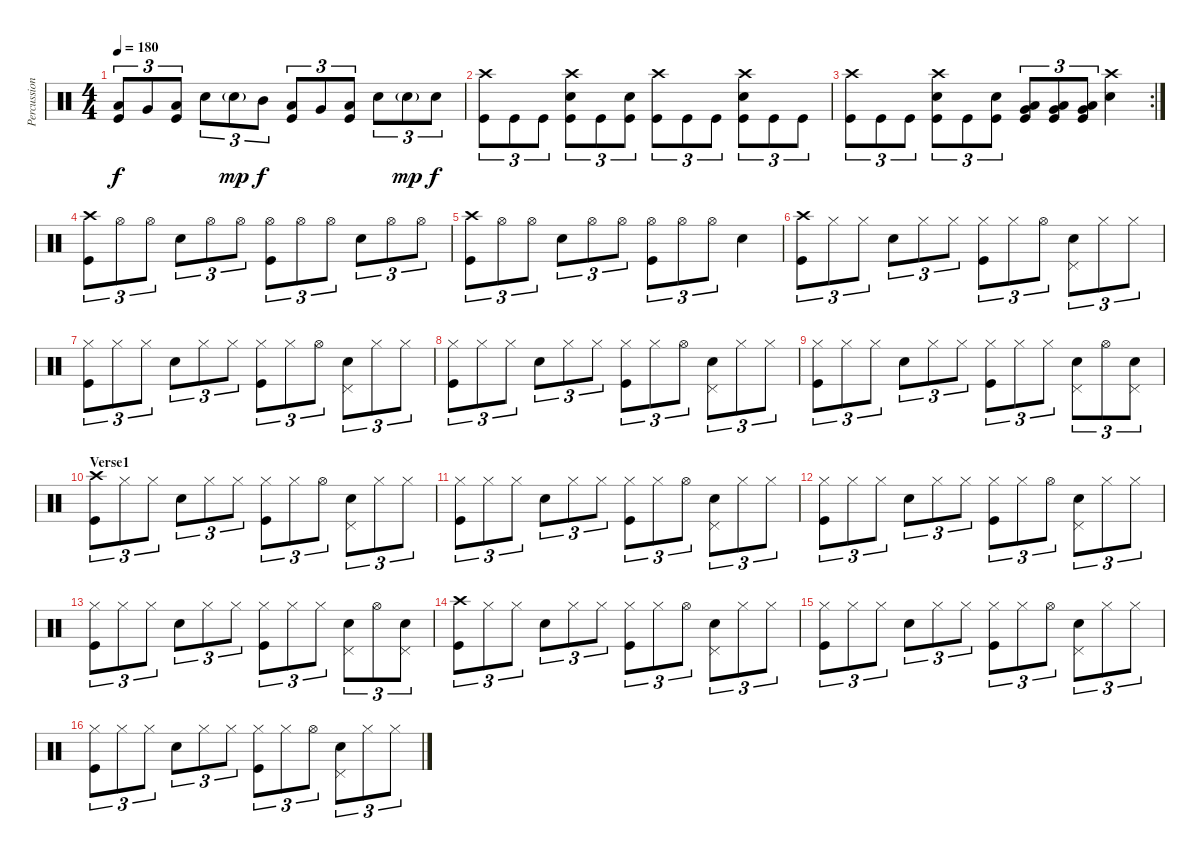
\track ("Percussions" "Percussion") {instrument percussion}
\staff {score}
\articulation defaults
\ts (4 4)
\tempo 180
\clef neutral
\ks c
("Low Tom (hit)" "Kick (hit)").8{tu (3 2) dy f} "Very Low Tom (hit)".8{tu (3 2)} ("Low Floor Tom (hit)" "Kick (hit)").8{tu (3 2)} "Electric Snare (hit)".8{tu (3 2)} "Electric Snare (hit)"{g}.8{tu (3 2) dy mp} "Mid Tom (hit)".8{tu (3 2) dy f} ("Low Tom (hit)" "Kick (hit)").8{tu (3 2)} "Very Low Tom (hit)".8{tu (3 2)} ("Low Floor Tom (hit)" "Kick (hit)").8{tu (3 2)} "Electric Snare (hit)".8{tu (3 2)} "Electric Snare (hit)"{g}.8{tu (3 2) dy mp} "Electric Snare (hit)".8{tu (3 2) dy f} |
("Crash high (hit)" "Kick (hit)").8{tu (3 2)} "Kick (hit)".8{tu (3 2)} "Kick (hit)".8{tu (3 2)} ("Crash high (hit)" "Electric Snare (hit)" "Kick (hit)").8{tu (3 2)} "Kick (hit)".8{tu (3 2)} ("Electric Snare (hit)" "Kick (hit)").8{tu (3 2)} ("Crash high (hit)" "Kick (hit)").8{tu (3 2)} "Kick (hit)".8{tu (3 2)} "Kick (hit)".8{tu (3 2)} ("Crash high (hit)" "Electric Snare (hit)" "Kick (hit)").8{tu (3 2)} "Kick (hit)".8{tu (3 2)} "Kick (hit)".8{tu (3 2)} |
\rc 2
("Crash high (hit)" "Kick (hit)").8{tu (3 2)} "Kick (hit)".8{tu (3 2)} "Kick (hit)".8{tu (3 2)} ("Crash high (hit)" "Electric Snare (hit)" "Kick (hit)").8{tu (3 2)} "Kick (hit)".8{tu (3 2)} ("Electric Snare (hit)" "Kick (hit)").8{tu (3 2)} ("Very Low Tom (hit)" "Low Floor Tom (hit)" "Kick (hit)").8{tu (3 2)} ("Very Low Tom (hit)" "Low Floor Tom (hit)" "Kick (hit)").8{tu (3 2)} ("Very Low Tom (hit)" "Low Floor Tom (hit)" "Kick (hit)").8{tu (3 2)} ("Crash high (hit)" "Electric Snare (hit)").4 |
("Crash high (hit)" "Kick (hit)").8{tu (3 2)} "Hi-Hat (open)".8{tu (3 2)} "Hi-Hat (open)".8{tu (3 2)} "Electric Snare (hit)".8{tu (3 2)} "Hi-Hat (open)".8{tu (3 2)} "Hi-Hat (open)".8{tu (3 2)} ("Hi-Hat (open)" "Kick (hit)").8{tu (3 2)} "Hi-Hat (open)".8{tu (3 2)} "Hi-Hat (open)".8{tu (3 2)} "Electric Snare (hit)".8{tu (3 2)} "Hi-Hat (open)".8{tu (3 2)} "Hi-Hat (open)".8{tu (3 2)} |
("Crash high (hit)" "Kick (hit)").8{tu (3 2)} "Hi-Hat (open)".8{tu (3 2)} "Hi-Hat (open)".8{tu (3 2)} "Electric Snare (hit)".8{tu (3 2)} "Hi-Hat (open)".8{tu (3 2)} "Hi-Hat (open)".8{tu (3 2)} ("Hi-Hat (open)" "Kick (hit)").8{tu (3 2)} "Hi-Hat (open)".8{tu (3 2)} "Hi-Hat (open)".8{tu (3 2)} "Electric Snare (hit)".4 |
("Crash high (hit)" "Kick (hit)").8{tu (3 2)} "Hi-Hat (closed)".8{tu (3 2)} "Hi-Hat (closed)".8{tu (3 2)} "Electric Snare (hit)".8{tu (3 2)} "Hi-Hat (closed)".8{tu (3 2)} "Hi-Hat (closed)".8{tu (3 2)} ("Hi-Hat (closed)" "Kick (hit)").8{tu (3 2)} "Hi-Hat (closed)".8{tu (3 2)} "Hi-Hat (open)".8{tu (3 2)} ("Pedal Hi-Hat (hit)" "Electric Snare (hit)").8{tu (3 2)} "Hi-Hat (closed)".8{tu (3 2)} "Hi-Hat (closed)".8{tu (3 2)} |
("Hi-Hat (closed)" "Kick (hit)").8{tu (3 2)} "Hi-Hat (closed)".8{tu (3 2)} "Hi-Hat (closed)".8{tu (3 2)} "Electric Snare (hit)".8{tu (3 2)} "Hi-Hat (closed)".8{tu (3 2)} "Hi-Hat (closed)".8{tu (3 2)} ("Hi-Hat (closed)" "Kick (hit)").8{tu (3 2)} "Hi-Hat (closed)".8{tu (3 2)} "Hi-Hat (open)".8{tu (3 2)} ("Pedal Hi-Hat (hit)" "Electric Snare (hit)").8{tu (3 2)} "Hi-Hat (closed)".8{tu (3 2)} "Hi-Hat (closed)".8{tu (3 2)} |
("Hi-Hat (closed)" "Kick (hit)").8{tu (3 2)} "Hi-Hat (closed)".8{tu (3 2)} "Hi-Hat (closed)".8{tu (3 2)} "Electric Snare (hit)".8{tu (3 2)} "Hi-Hat (closed)".8{tu (3 2)} "Hi-Hat (closed)".8{tu (3 2)} ("Hi-Hat (closed)" "Kick (hit)").8{tu (3 2)} "Hi-Hat (closed)".8{tu (3 2)} "Hi-Hat (open)".8{tu (3 2)} ("Pedal Hi-Hat (hit)" "Electric Snare (hit)").8{tu (3 2)} "Hi-Hat (closed)".8{tu (3 2)} "Hi-Hat (closed)".8{tu (3 2)} |
("Hi-Hat (closed)" "Kick (hit)").8{tu (3 2)} "Hi-Hat (closed)".8{tu (3 2)} "Hi-Hat (closed)".8{tu (3 2)} "Electric Snare (hit)".8{tu (3 2)} "Hi-Hat (closed)".8{tu (3 2)} "Hi-Hat (closed)".8{tu (3 2)} ("Hi-Hat (closed)" "Kick (hit)").8{tu (3 2)} "Hi-Hat (closed)".8{tu (3 2)} "Hi-Hat (closed)".8{tu (3 2)} ("Pedal Hi-Hat (hit)" "Electric Snare (hit)").8{tu (3 2)} "Hi-Hat (open)".8{tu (3 2)} ("Pedal Hi-Hat (hit)" "Electric Snare (hit)").8{tu (3 2)} |
\section ("" "Verse1")
("Crash high (hit)" "Kick (hit)").8{tu (3 2)} "Hi-Hat (closed)".8{tu (3 2)} "Hi-Hat (closed)".8{tu (3 2)} "Electric Snare (hit)".8{tu (3 2)} "Hi-Hat (closed)".8{tu (3 2)} "Hi-Hat (closed)".8{tu (3 2)} ("Hi-Hat (closed)" "Kick (hit)").8{tu (3 2)} "Hi-Hat (closed)".8{tu (3 2)} "Hi-Hat (open)".8{tu (3 2)} ("Pedal Hi-Hat (hit)" "Electric Snare (hit)").8{tu (3 2)} "Hi-Hat (closed)".8{tu (3 2)} "Hi-Hat (closed)".8{tu (3 2)} |
("Hi-Hat (closed)" "Kick (hit)").8{tu (3 2)} "Hi-Hat (closed)".8{tu (3 2)} "Hi-Hat (closed)".8{tu (3 2)} "Electric Snare (hit)".8{tu (3 2)} "Hi-Hat (closed)".8{tu (3 2)} "Hi-Hat (closed)".8{tu (3 2)} ("Hi-Hat (closed)" "Kick (hit)").8{tu (3 2)} "Hi-Hat (closed)".8{tu (3 2)} "Hi-Hat (open)".8{tu (3 2)} ("Pedal Hi-Hat (hit)" "Electric Snare (hit)").8{tu (3 2)} "Hi-Hat (closed)".8{tu (3 2)} "Hi-Hat (closed)".8{tu (3 2)} |
("Hi-Hat (closed)" "Kick (hit)").8{tu (3 2)} "Hi-Hat (closed)".8{tu (3 2)} "Hi-Hat (closed)".8{tu (3 2)} "Electric Snare (hit)".8{tu (3 2)} "Hi-Hat (closed)".8{tu (3 2)} "Hi-Hat (closed)".8{tu (3 2)} ("Hi-Hat (closed)" "Kick (hit)").8{tu (3 2)} "Hi-Hat (closed)".8{tu (3 2)} "Hi-Hat (open)".8{tu (3 2)} ("Pedal Hi-Hat (hit)" "Electric Snare (hit)").8{tu (3 2)} "Hi-Hat (closed)".8{tu (3 2)} "Hi-Hat (closed)".8{tu (3 2)} |
("Hi-Hat (closed)" "Kick (hit)").8{tu (3 2)} "Hi-Hat (closed)".8{tu (3 2)} "Hi-Hat (closed)".8{tu (3 2)} "Electric Snare (hit)".8{tu (3 2)} "Hi-Hat (closed)".8{tu (3 2)} "Hi-Hat (closed)".8{tu (3 2)} ("Hi-Hat (closed)" "Kick (hit)").8{tu (3 2)} "Hi-Hat (closed)".8{tu (3 2)} "Hi-Hat (closed)".8{tu (3 2)} ("Pedal Hi-Hat (hit)" "Electric Snare (hit)").8{tu (3 2)} "Hi-Hat (open)".8{tu (3 2)} ("Pedal Hi-Hat (hit)" "Electric Snare (hit)").8{tu (3 2)} |
("Crash high (hit)" "Kick (hit)").8{tu (3 2)} "Hi-Hat (closed)".8{tu (3 2)} "Hi-Hat (closed)".8{tu (3 2)} "Electric Snare (hit)".8{tu (3 2)} "Hi-Hat (closed)".8{tu (3 2)} "Hi-Hat (closed)".8{tu (3 2)} ("Hi-Hat (closed)" "Kick (hit)").8{tu (3 2)} "Hi-Hat (closed)".8{tu (3 2)} "Hi-Hat (open)".8{tu (3 2)} ("Pedal Hi-Hat (hit)" "Electric Snare (hit)").8{tu (3 2)} "Hi-Hat (closed)".8{tu (3 2)} "Hi-Hat (closed)".8{tu (3 2)} |
("Hi-Hat (closed)" "Kick (hit)").8{tu (3 2)} "Hi-Hat (closed)".8{tu (3 2)} "Hi-Hat (closed)".8{tu (3 2)} "Electric Snare (hit)".8{tu (3 2)} "Hi-Hat (closed)".8{tu (3 2)} "Hi-Hat (closed)".8{tu (3 2)} ("Hi-Hat (closed)" "Kick (hit)").8{tu (3 2)} "Hi-Hat (closed)".8{tu (3 2)} "Hi-Hat (open)".8{tu (3 2)} ("Pedal Hi-Hat (hit)" "Electric Snare (hit)").8{tu (3 2)} "Hi-Hat (closed)".8{tu (3 2)} "Hi-Hat (closed)".8{tu (3 2)} |
("Hi-Hat (closed)" "Kick (hit)").8{tu (3 2)} "Hi-Hat (closed)".8{tu (3 2)} "Hi-Hat (closed)".8{tu (3 2)} "Electric Snare (hit)".8{tu (3 2)} "Hi-Hat (closed)".8{tu (3 2)} "Hi-Hat (closed)".8{tu (3 2)} ("Hi-Hat (closed)" "Kick (hit)").8{tu (3 2)} "Hi-Hat (closed)".8{tu (3 2)} "Hi-Hat (open)".8{tu (3 2)} ("Pedal Hi-Hat (hit)" "Electric Snare (hit)").8{tu (3 2)} "Hi-Hat (closed)".8{tu (3 2)} "Hi-Hat (closed)".8{tu (3 2)}
